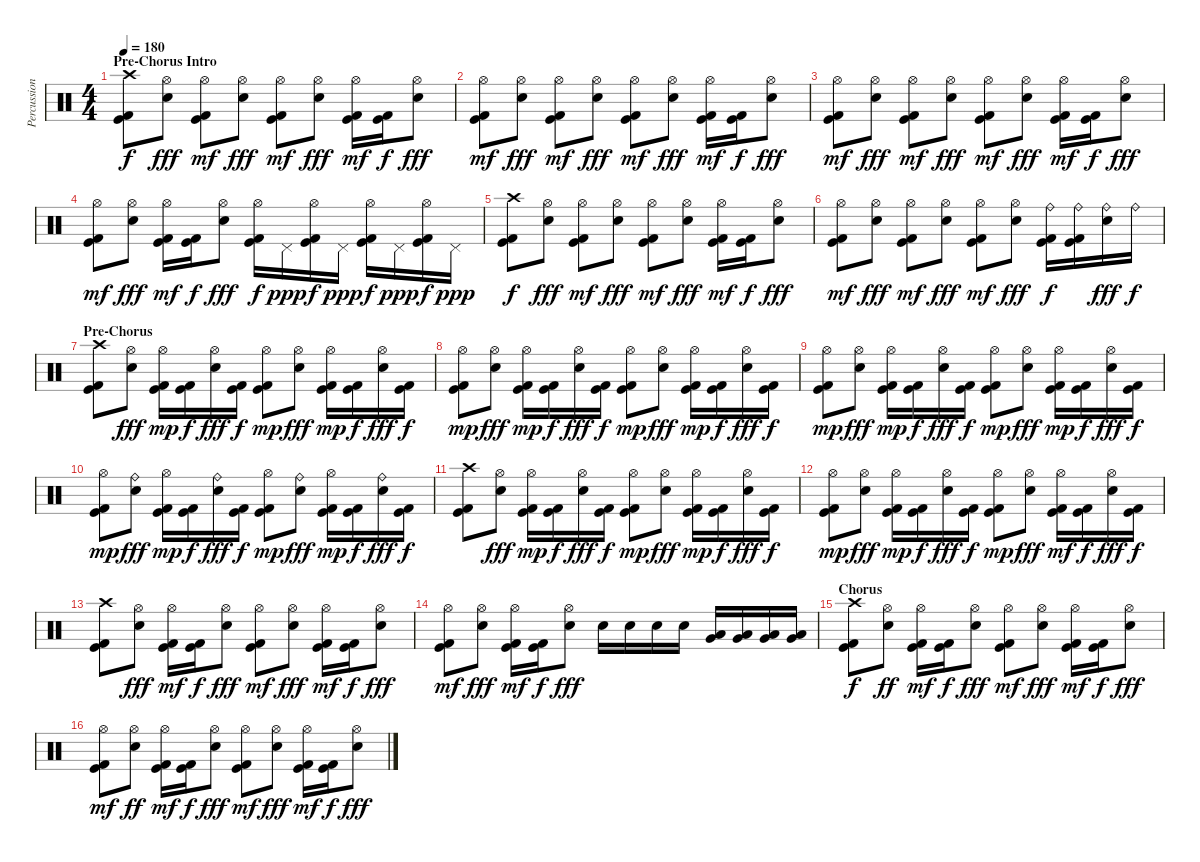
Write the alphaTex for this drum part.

\track ("Percussion" "Percussion") {instrument percussion}
\staff {score}
\articulation defaults
\ts (4 4)
\section ("" "Pre-Chorus Intro")
\tempo 180
\clef neutral
\ks c
("Crash high (hit)" "Kick (hit)" "Kick (hit) 2").8{dy f} ("Hi-Hat (open)" "Snare (hit) 2").8{dy fff} ("Hi-Hat (open)" "Kick (hit)" "Kick (hit) 2").8{dy mf} ("Hi-Hat (open)" "Snare (hit) 2").8{dy fff} ("Hi-Hat (open)" "Kick (hit)" "Kick (hit) 2").8{dy mf} ("Hi-Hat (open)" "Snare (hit) 2").8{dy fff} ("Hi-Hat (open)" "Kick (hit)" "Kick (hit) 2").16{dy mf} ("Kick (hit)" "Kick (hit) 2").16{dy f} ("Hi-Hat (open)" "Snare (hit) 2").8{dy fff} |
("Hi-Hat (open)" "Kick (hit)" "Kick (hit) 2").8{dy mf} ("Hi-Hat (open)" "Snare (hit) 2").8{dy fff} ("Hi-Hat (open)" "Kick (hit)" "Kick (hit) 2").8{dy mf} ("Hi-Hat (open)" "Snare (hit) 2").8{dy fff} ("Hi-Hat (open)" "Kick (hit)" "Kick (hit) 2").8{dy mf} ("Hi-Hat (open)" "Snare (hit) 2").8{dy fff} ("Hi-Hat (open)" "Kick (hit)" "Kick (hit) 2").16{dy mf} ("Kick (hit)" "Kick (hit) 2").16{dy f} ("Hi-Hat (open)" "Snare (hit) 2").8{dy fff} |
("Hi-Hat (open)" "Kick (hit)" "Kick (hit) 2").8{dy mf} ("Hi-Hat (open)" "Snare (hit) 2").8{dy fff} ("Hi-Hat (open)" "Kick (hit)" "Kick (hit) 2").8{dy mf} ("Hi-Hat (open)" "Snare (hit) 2").8{dy fff} ("Hi-Hat (open)" "Kick (hit)" "Kick (hit) 2").8{dy mf} ("Hi-Hat (open)" "Snare (hit) 2").8{dy fff} ("Hi-Hat (open)" "Kick (hit)" "Kick (hit) 2").16{dy mf} ("Kick (hit)" "Kick (hit) 2").16{dy f} ("Hi-Hat (open)" "Snare (hit) 2").8{dy fff} |
("Hi-Hat (open)" "Kick (hit)" "Kick (hit) 2").8{dy mf} ("Hi-Hat (open)" "Snare (hit) 2").8{dy fff} ("Hi-Hat (open)" "Kick (hit)" "Kick (hit) 2").16{dy mf} ("Kick (hit)" "Kick (hit) 2").16{dy f} ("Hi-Hat (open)" "Snare (hit) 2").8{dy fff} ("Hi-Hat (open)" "Kick (hit)" "Kick (hit) 2").16{dy f} "Pedal Hi-Hat (hit)".16{dy ppp} ("Hi-Hat (open)" "Kick (hit)" "Kick (hit) 2").16{dy f} "Pedal Hi-Hat (hit)".16{dy ppp} ("Hi-Hat (open)" "Kick (hit)" "Kick (hit) 2").16{dy f} "Pedal Hi-Hat (hit)".16{dy ppp} ("Hi-Hat (open)" "Kick (hit)" "Kick (hit) 2").16{dy f} "Pedal Hi-Hat (hit)".16{dy ppp} |
("Crash high (hit)" "Kick (hit)" "Kick (hit) 2").8{dy f} ("Hi-Hat (open)" "Snare (hit) 2").8{dy fff} ("Hi-Hat (open)" "Kick (hit)" "Kick (hit) 2").8{dy mf} ("Hi-Hat (open)" "Snare (hit) 2").8{dy fff} ("Hi-Hat (open)" "Kick (hit)" "Kick (hit) 2").8{dy mf} ("Hi-Hat (open)" "Snare (hit) 2").8{dy fff} ("Hi-Hat (open)" "Kick (hit)" "Kick (hit) 2").16{dy mf} ("Kick (hit)" "Kick (hit) 2").16{dy f} ("Hi-Hat (open)" "Snare (hit) 2").8{dy fff} |
("Hi-Hat (open)" "Kick (hit)" "Kick (hit) 2").8{dy mf} ("Hi-Hat (open)" "Snare (hit) 2").8{dy fff} ("Hi-Hat (open)" "Kick (hit)" "Kick (hit) 2").8{dy mf} ("Hi-Hat (open)" "Snare (hit) 2").8{dy fff} ("Hi-Hat (open)" "Kick (hit)" "Kick (hit) 2").8{dy mf} ("Hi-Hat (open)" "Snare (hit) 2").8{dy fff} ("Ride (bell)" "Kick (hit)" "Kick (hit) 2").16{dy f} ("Ride (bell)" "Kick (hit)" "Kick (hit) 2").16 ("Ride (bell)" "Snare (hit) 2").16{dy fff} "Ride (bell)".16{dy f} |
\section ("" "Pre-Chorus")
("Crash high (hit)" "Kick (hit)" "Kick (hit) 2").8 ("Hi-Hat (open)" "Snare (hit) 2").8{dy fff} ("Hi-Hat (open)" "Kick (hit)" "Kick (hit) 2").16{dy mp} ("Kick (hit)" "Kick (hit) 2").16{dy f} ("Hi-Hat (open)" "Snare (hit) 2").16{dy fff} ("Kick (hit)" "Kick (hit) 2").16{dy f} ("Hi-Hat (open)" "Kick (hit)" "Kick (hit) 2").8{dy mp} ("Hi-Hat (open)" "Snare (hit) 2").8{dy fff} ("Hi-Hat (open)" "Kick (hit)" "Kick (hit) 2").16{dy mp} ("Kick (hit)" "Kick (hit) 2").16{dy f} ("Hi-Hat (open)" "Snare (hit) 2").16{dy fff} ("Kick (hit)" "Kick (hit) 2").16{dy f} |
("Hi-Hat (open)" "Kick (hit)" "Kick (hit) 2").8{dy mp} ("Hi-Hat (open)" "Snare (hit) 2").8{dy fff} ("Hi-Hat (open)" "Kick (hit)" "Kick (hit) 2").16{dy mp} ("Kick (hit)" "Kick (hit) 2").16{dy f} ("Hi-Hat (open)" "Snare (hit) 2").16{dy fff} ("Kick (hit)" "Kick (hit) 2").16{dy f} ("Hi-Hat (open)" "Kick (hit)" "Kick (hit) 2").8{dy mp} ("Hi-Hat (open)" "Snare (hit) 2").8{dy fff} ("Hi-Hat (open)" "Kick (hit)" "Kick (hit) 2").16{dy mp} ("Kick (hit)" "Kick (hit) 2").16{dy f} ("Hi-Hat (open)" "Snare (hit) 2").16{dy fff} ("Kick (hit)" "Kick (hit) 2").16{dy f} |
("Hi-Hat (open)" "Kick (hit)" "Kick (hit) 2").8{dy mp} ("Hi-Hat (open)" "Snare (hit) 2").8{dy fff} ("Hi-Hat (open)" "Kick (hit)" "Kick (hit) 2").16{dy mp} ("Kick (hit)" "Kick (hit) 2").16{dy f} ("Hi-Hat (open)" "Snare (hit) 2").16{dy fff} ("Kick (hit)" "Kick (hit) 2").16{dy f} ("Hi-Hat (open)" "Kick (hit)" "Kick (hit) 2").8{dy mp} ("Hi-Hat (open)" "Snare (hit) 2").8{dy fff} ("Hi-Hat (open)" "Kick (hit)" "Kick (hit) 2").16{dy mp} ("Kick (hit)" "Kick (hit) 2").16{dy f} ("Hi-Hat (open)" "Snare (hit) 2").16{dy fff} ("Kick (hit)" "Kick (hit) 2").16{dy f} |
("Hi-Hat (open)" "Kick (hit)" "Kick (hit) 2").8{dy mp} ("Ride (bell)" "Snare (hit) 2").8{dy fff} ("Hi-Hat (open)" "Kick (hit)" "Kick (hit) 2").16{dy mp} ("Kick (hit)" "Kick (hit) 2").16{dy f} ("Ride (bell)" "Snare (hit) 2").16{dy fff} ("Kick (hit)" "Kick (hit) 2").16{dy f} ("Hi-Hat (open)" "Kick (hit)" "Kick (hit) 2").8{dy mp} ("Ride (bell)" "Snare (hit) 2").8{dy fff} ("Hi-Hat (open)" "Kick (hit)" "Kick (hit) 2").16{dy mp} ("Kick (hit)" "Kick (hit) 2").16{dy f} ("Ride (bell)" "Snare (hit) 2").16{dy fff} ("Kick (hit)" "Kick (hit) 2").16{dy f} |
("Crash high (hit)" "Kick (hit)" "Kick (hit) 2").8 ("Hi-Hat (open)" "Snare (hit) 2").8{dy fff} ("Hi-Hat (open)" "Kick (hit)" "Kick (hit) 2").16{dy mp} ("Kick (hit)" "Kick (hit) 2").16{dy f} ("Hi-Hat (open)" "Snare (hit) 2").16{dy fff} ("Kick (hit)" "Kick (hit) 2").16{dy f} ("Hi-Hat (open)" "Kick (hit)" "Kick (hit) 2").8{dy mp} ("Hi-Hat (open)" "Snare (hit) 2").8{dy fff} ("Hi-Hat (open)" "Kick (hit)" "Kick (hit) 2").16{dy mp} ("Kick (hit)" "Kick (hit) 2").16{dy f} ("Hi-Hat (open)" "Snare (hit) 2").16{dy fff} ("Kick (hit)" "Kick (hit) 2").16{dy f} |
("Hi-Hat (open)" "Kick (hit)" "Kick (hit) 2").8{dy mp} ("Hi-Hat (open)" "Snare (hit) 2").8{dy fff} ("Hi-Hat (open)" "Kick (hit)" "Kick (hit) 2").16{dy mp} ("Kick (hit)" "Kick (hit) 2").16{dy f} ("Hi-Hat (open)" "Snare (hit) 2").16{dy fff} ("Kick (hit)" "Kick (hit) 2").16{dy f} ("Hi-Hat (open)" "Kick (hit)" "Kick (hit) 2").8{dy mp} ("Hi-Hat (open)" "Snare (hit) 2").8{dy fff} ("Hi-Hat (open)" "Kick (hit)" "Kick (hit) 2").16{dy mf} ("Kick (hit)" "Kick (hit) 2").16{dy f} ("Hi-Hat (open)" "Snare (hit) 2").16{dy fff} ("Kick (hit)" "Kick (hit) 2").16{dy f} |
("Crash high (hit)" "Kick (hit)" "Kick (hit) 2").8 ("Hi-Hat (open)" "Snare (hit) 2").8{dy fff} ("Hi-Hat (open)" "Kick (hit)" "Kick (hit) 2").16{dy mf} ("Kick (hit)" "Kick (hit) 2").16{dy f} ("Hi-Hat (open)" "Snare (hit) 2").8{dy fff} ("Hi-Hat (open)" "Kick (hit)" "Kick (hit) 2").8{dy mf} ("Hi-Hat (open)" "Snare (hit) 2").8{dy fff} ("Hi-Hat (open)" "Kick (hit)" "Kick (hit) 2").16{dy mf} ("Kick (hit)" "Kick (hit) 2").16{dy f} ("Hi-Hat (open)" "Snare (hit) 2").8{dy fff} |
("Hi-Hat (open)" "Kick (hit)" "Kick (hit) 2").8{dy mf} ("Hi-Hat (open)" "Snare (hit) 2").8{dy fff} ("Hi-Hat (open)" "Kick (hit)" "Kick (hit) 2").16{dy mf} ("Kick (hit)" "Kick (hit) 2").16{dy f} ("Hi-Hat (open)" "Snare (hit) 2").8{dy fff} "Snare (hit) 2".16 "Snare (hit) 2".16 "Snare (hit) 2".16 "Snare (hit) 2".16 ("Very Low Tom (hit)" "Low Tom (hit)").16 ("Very Low Tom (hit)" "Low Tom (hit)").16 ("Very Low Tom (hit)" "Low Tom (hit)").16 ("Very Low Tom (hit)" "Low Tom (hit)").16 |
\section ("" "Chorus")
("Crash high (hit)" "Kick (hit)" "Kick (hit) 2").8{dy f} ("Hi-Hat (open)" "Snare (hit) 2").8{dy ff} ("Hi-Hat (open)" "Kick (hit)" "Kick (hit) 2").16{dy mf} ("Kick (hit)" "Kick (hit) 2").16{dy f} ("Hi-Hat (open)" "Snare (hit) 2").8{dy fff} ("Hi-Hat (open)" "Kick (hit)" "Kick (hit) 2").8{dy mf} ("Hi-Hat (open)" "Snare (hit) 2").8{dy fff} ("Hi-Hat (open)" "Kick (hit)" "Kick (hit) 2").16{dy mf} ("Kick (hit)" "Kick (hit) 2").16{dy f} ("Hi-Hat (open)" "Snare (hit) 2").8{dy fff} |
("Hi-Hat (open)" "Kick (hit)" "Kick (hit) 2").8{dy mf} ("Hi-Hat (open)" "Snare (hit) 2").8{dy ff} ("Hi-Hat (open)" "Kick (hit)" "Kick (hit) 2").16{dy mf} ("Kick (hit)" "Kick (hit) 2").16{dy f} ("Hi-Hat (open)" "Snare (hit) 2").8{dy fff} ("Hi-Hat (open)" "Kick (hit)" "Kick (hit) 2").8{dy mf} ("Hi-Hat (open)" "Snare (hit) 2").8{dy fff} ("Hi-Hat (open)" "Kick (hit)" "Kick (hit) 2").16{dy mf} ("Kick (hit)" "Kick (hit) 2").16{dy f} ("Hi-Hat (open)" "Snare (hit) 2").8{dy fff}
